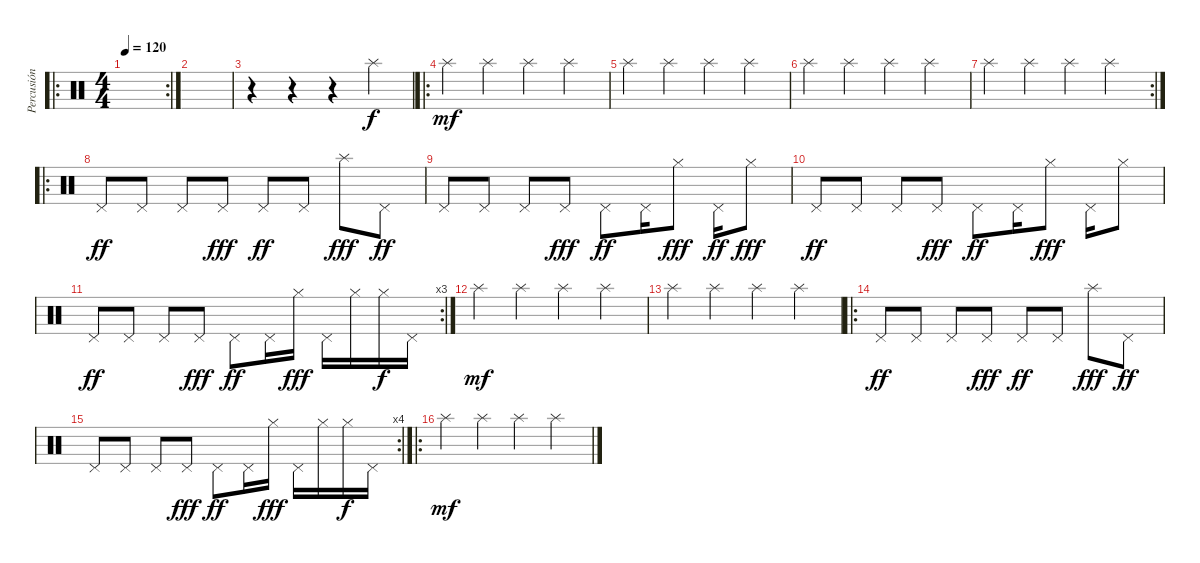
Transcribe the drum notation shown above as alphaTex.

\track ("Percusión" "Percusión") {instrument percussion}
\staff {score}
\articulation defaults
\ro
\rc 2
\ts (4 4)
\tempo 120
\clef neutral
\ks c
|
|
r.4 r.4 r.4 "Splash (hit)".4 |
\ro "Splash (hit)".4{dy mf} "Splash (hit)".4 "Splash (hit)".4 "Splash (hit)".4
|
"Splash (hit)".4 "Splash (hit)".4 "Splash (hit)".4 "Splash (hit)".4 |
"Splash (hit)".4 "Splash (hit)".4 "Splash (hit)".4 "Splash (hit)".4 |
\rc 2 "Splash (hit)".4 "Splash (hit)".4 "Splash (hit)".4 "Splash (hit)".4
|
\ro "Pedal Hi-Hat (hit)".8{dy ff} "Pedal Hi-Hat (hit)".8 "Pedal Hi-Hat (hit)".8 "Pedal Hi-Hat (hit)".8{dy fff} "Pedal Hi-Hat (hit)".8{dy ff} "Pedal Hi-Hat (hit)".8 "Splash (hit)".8{dy fff} "Pedal Hi-Hat (hit)".8{dy ff}
|
"Pedal Hi-Hat (hit)".8 "Pedal Hi-Hat (hit)".8 "Pedal Hi-Hat (hit)".8 "Pedal Hi-Hat (hit)".8{dy fff} "Pedal Hi-Hat (hit)".8{dy ff} "Pedal Hi-Hat (hit)".16 "Hi-Hat (closed)".8{dy fff} "Pedal Hi-Hat (hit)".16{dy ff} "Hi-Hat (closed)".8{dy fff} |
"Pedal Hi-Hat (hit)".8{dy ff} "Pedal Hi-Hat (hit)".8 "Pedal Hi-Hat (hit)".8 "Pedal Hi-Hat (hit)".8{dy fff} "Pedal Hi-Hat (hit)".8{dy ff} "Pedal Hi-Hat (hit)".16 "Hi-Hat (closed)".8{dy fff} "Pedal Hi-Hat (hit)".16 "Hi-Hat (closed)".8 |
\rc 3 "Pedal Hi-Hat (hit)".8{dy ff} "Pedal Hi-Hat (hit)".8 "Pedal Hi-Hat (hit)".8 "Pedal Hi-Hat (hit)".8{dy fff} "Pedal Hi-Hat (hit)".8{dy ff} "Pedal Hi-Hat (hit)".16 "Hi-Hat (closed)".16{dy fff} "Pedal Hi-Hat (hit)".16 "Hi-Hat (closed)".16 "Hi-Hat (closed)".16{dy f} "Pedal Hi-Hat (hit)".16
|
"Splash (hit)".4{dy mf} "Splash (hit)".4 "Splash (hit)".4 "Splash (hit)".4 |
"Splash (hit)".4 "Splash (hit)".4 "Splash (hit)".4 "Splash (hit)".4 |
\ro "Pedal Hi-Hat (hit)".8{dy ff} "Pedal Hi-Hat (hit)".8 "Pedal Hi-Hat (hit)".8 "Pedal Hi-Hat (hit)".8{dy fff} "Pedal Hi-Hat (hit)".8{dy ff} "Pedal Hi-Hat (hit)".8 "Splash (hit)".8{dy fff} "Pedal Hi-Hat (hit)".8{dy ff}
|
\rc 4 "Pedal Hi-Hat (hit)".8 "Pedal Hi-Hat (hit)".8 "Pedal Hi-Hat (hit)".8 "Pedal Hi-Hat (hit)".8{dy fff} "Pedal Hi-Hat (hit)".8{dy ff} "Pedal Hi-Hat (hit)".16 "Hi-Hat (closed)".16{dy fff} "Pedal Hi-Hat (hit)".16 "Hi-Hat (closed)".16 "Hi-Hat (closed)".16{dy f} "Pedal Hi-Hat (hit)".16
|
\ro "Splash (hit)".4{dy mf} "Splash (hit)".4 "Splash (hit)".4 "Splash (hit)".4
